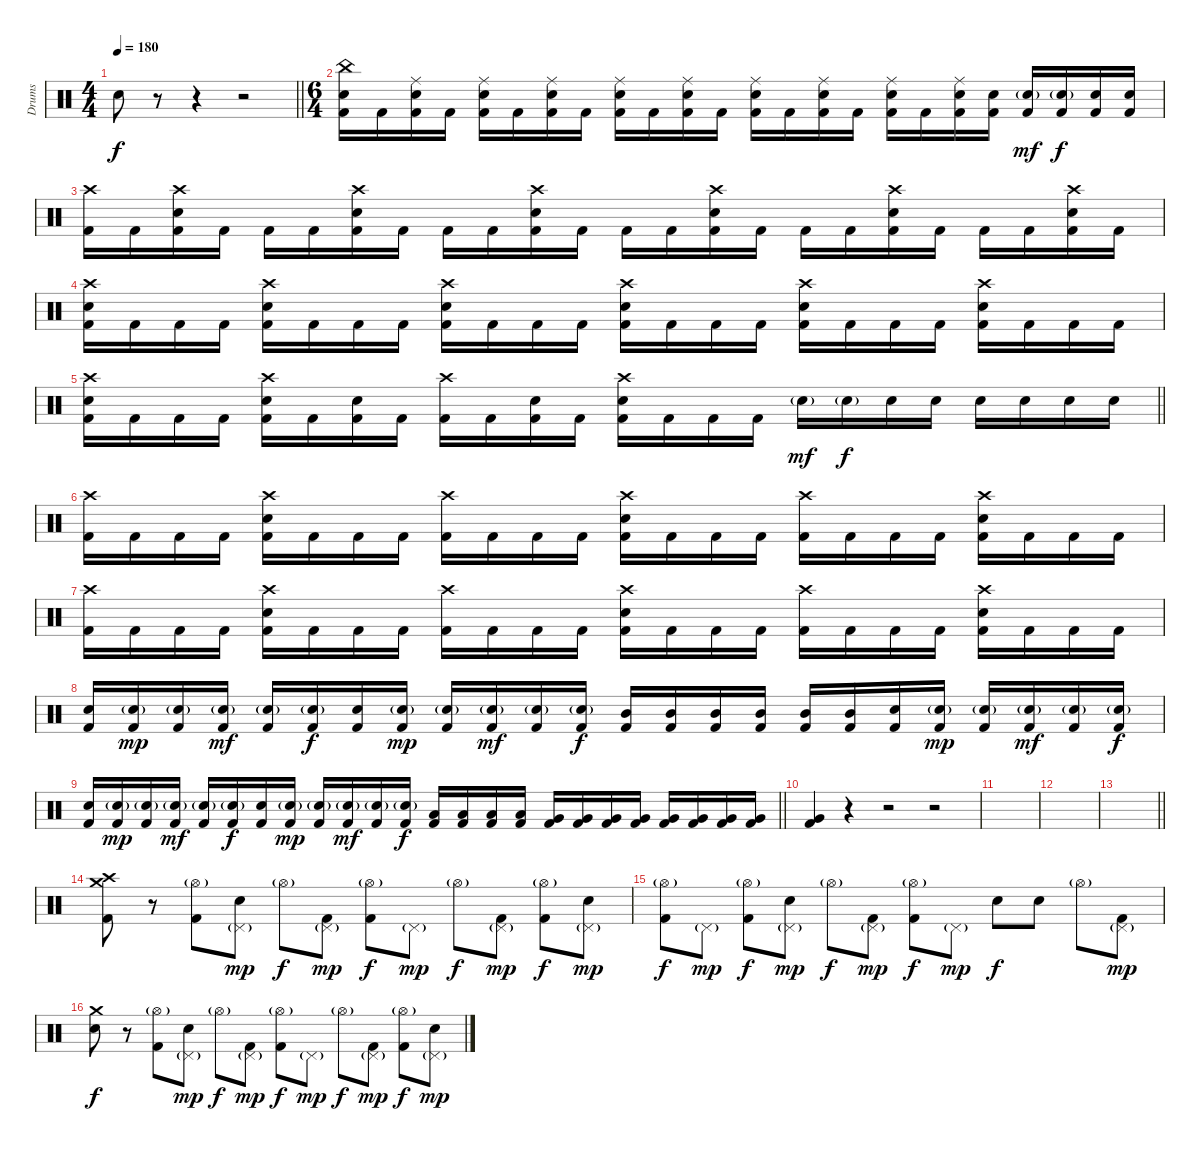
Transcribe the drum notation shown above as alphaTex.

\track ("Drums" "Drums") {instrument percussion}
\staff {score}
\articulation defaults
\ts (4 4)
\tempo 180
\clef neutral
\barLineRight lightlight
\ks c "Electric Snare (hit)".8{dy f}
r.8 r.4 r.2 |
\ts (6 4)
("China (hit)" "Electric Snare (hit)" "Kick (hit) 2").16 "Kick (hit) 2".16 ("Ride (middle)" "Electric Snare (hit)" "Kick (hit) 2").16 "Kick (hit) 2".16 ("Ride (middle)" "Electric Snare (hit)" "Kick (hit) 2").16 "Kick (hit) 2".16 ("Ride (middle)" "Electric Snare (hit)" "Kick (hit) 2").16 "Kick (hit) 2".16 ("Ride (middle)" "Electric Snare (hit)" "Kick (hit) 2").16 "Kick (hit) 2".16 ("Ride (middle)" "Electric Snare (hit)" "Kick (hit) 2").16 "Kick (hit) 2".16 ("Ride (middle)" "Electric Snare (hit)" "Kick (hit) 2").16 "Kick (hit) 2".16 ("Ride (middle)" "Electric Snare (hit)" "Kick (hit) 2").16 "Kick (hit) 2".16 ("Ride (middle)" "Electric Snare (hit)" "Kick (hit) 2").16 "Kick (hit) 2".16 ("Ride (middle)" "Electric Snare (hit)" "Kick (hit) 2").16 ("Electric Snare (hit)" "Kick (hit) 2").16 ("Electric Snare (hit)"{g} "Kick (hit) 2").16{dy mf} ("Electric Snare (hit)"{g} "Kick (hit) 2").16{dy f} ("Electric Snare (hit)" "Kick (hit) 2").16 ("Electric Snare (hit)" "Kick (hit) 2").16 |
("Crash high (hit)" "Kick (hit) 2").16 "Kick (hit) 2".16 ("Crash high (hit)" "Electric Snare (hit)" "Kick (hit) 2").16 "Kick (hit) 2".16 "Kick (hit) 2".16 "Kick (hit) 2".16 ("Crash high (hit)" "Electric Snare (hit)" "Kick (hit) 2").16 "Kick (hit) 2".16 "Kick (hit) 2".16 "Kick (hit) 2".16 ("Crash high (hit)" "Electric Snare (hit)" "Kick (hit) 2").16 "Kick (hit) 2".16 "Kick (hit) 2".16 "Kick (hit) 2".16 ("Crash high (hit)" "Electric Snare (hit)" "Kick (hit) 2").16 "Kick (hit) 2".16 "Kick (hit) 2".16 "Kick (hit) 2".16 ("Crash high (hit)" "Electric Snare (hit)" "Kick (hit) 2").16 "Kick (hit) 2".16 "Kick (hit) 2".16 "Kick (hit) 2".16 ("Crash high (hit)" "Electric Snare (hit)" "Kick (hit) 2").16 "Kick (hit) 2".16 |
("Crash high (hit)" "Electric Snare (hit)" "Kick (hit) 2").16 "Kick (hit) 2".16 "Kick (hit) 2".16 "Kick (hit) 2".16 ("Crash high (hit)" "Electric Snare (hit)" "Kick (hit) 2").16 "Kick (hit) 2".16 "Kick (hit) 2".16 "Kick (hit) 2".16 ("Crash high (hit)" "Electric Snare (hit)" "Kick (hit) 2").16 "Kick (hit) 2".16 "Kick (hit) 2".16 "Kick (hit) 2".16 ("Crash high (hit)" "Electric Snare (hit)" "Kick (hit) 2").16 "Kick (hit) 2".16 "Kick (hit) 2".16 "Kick (hit) 2".16 ("Crash high (hit)" "Electric Snare (hit)" "Kick (hit) 2").16 "Kick (hit) 2".16 "Kick (hit) 2".16 "Kick (hit) 2".16 ("Crash high (hit)" "Electric Snare (hit)" "Kick (hit) 2").16 "Kick (hit) 2".16 "Kick (hit) 2".16 "Kick (hit) 2".16 |
\barLineRight lightlight
("Crash high (hit)" "Electric Snare (hit)" "Kick (hit) 2").16 "Kick (hit) 2".16 "Kick (hit) 2".16 "Kick (hit) 2".16 ("Crash high (hit)" "Electric Snare (hit)" "Kick (hit) 2").16 "Kick (hit) 2".16 ("Electric Snare (hit)" "Kick (hit) 2").16 "Kick (hit) 2".16 ("Crash high (hit)" "Kick (hit) 2").16 "Kick (hit) 2".16 ("Electric Snare (hit)" "Kick (hit) 2").16 "Kick (hit) 2".16 ("Crash high (hit)" "Electric Snare (hit)" "Kick (hit) 2").16 "Kick (hit) 2".16 "Kick (hit) 2".16 "Kick (hit) 2".16 "Electric Snare (hit)"{g}.16{dy mf} "Electric Snare (hit)"{g}.16{dy f} "Electric Snare (hit)".16 "Electric Snare (hit)".16 "Electric Snare (hit)".16 "Electric Snare (hit)".16 "Electric Snare (hit)".16 "Electric Snare (hit)".16 |
("Crash high (hit)" "Kick (hit) 2").16 "Kick (hit) 2".16 "Kick (hit) 2".16 "Kick (hit) 2".16 ("Crash high (hit)" "Electric Snare (hit)" "Kick (hit) 2").16 "Kick (hit) 2".16 "Kick (hit) 2".16 "Kick (hit) 2".16 ("Crash high (hit)" "Kick (hit) 2").16 "Kick (hit) 2".16 "Kick (hit) 2".16 "Kick (hit) 2".16 ("Crash high (hit)" "Electric Snare (hit)" "Kick (hit) 2").16 "Kick (hit) 2".16 "Kick (hit) 2".16 "Kick (hit) 2".16 ("Crash high (hit)" "Kick (hit) 2").16 "Kick (hit) 2".16 "Kick (hit) 2".16 "Kick (hit) 2".16 ("Crash high (hit)" "Electric Snare (hit)" "Kick (hit) 2").16 "Kick (hit) 2".16 "Kick (hit) 2".16 "Kick (hit) 2".16 |
("Crash high (hit)" "Kick (hit) 2").16 "Kick (hit) 2".16 "Kick (hit) 2".16 "Kick (hit) 2".16 ("Crash high (hit)" "Electric Snare (hit)" "Kick (hit) 2").16 "Kick (hit) 2".16 "Kick (hit) 2".16 "Kick (hit) 2".16 ("Crash high (hit)" "Kick (hit) 2").16 "Kick (hit) 2".16 "Kick (hit) 2".16 "Kick (hit) 2".16 ("Crash high (hit)" "Electric Snare (hit)" "Kick (hit) 2").16 "Kick (hit) 2".16 "Kick (hit) 2".16 "Kick (hit) 2".16 ("Crash high (hit)" "Kick (hit) 2").16 "Kick (hit) 2".16 "Kick (hit) 2".16 "Kick (hit) 2".16 ("Crash high (hit)" "Electric Snare (hit)" "Kick (hit) 2").16 "Kick (hit) 2".16 "Kick (hit) 2".16 "Kick (hit) 2".16 |
("Electric Snare (hit)" "Kick (hit) 2").16 ("Electric Snare (hit)"{g} "Kick (hit) 2").16{dy mp} ("Electric Snare (hit)"{g} "Kick (hit) 2").16 ("Electric Snare (hit)"{g} "Kick (hit) 2").16{dy mf} ("Electric Snare (hit)"{g} "Kick (hit) 2").16 ("Electric Snare (hit)"{g} "Kick (hit) 2").16{dy f} ("Electric Snare (hit)" "Kick (hit) 2").16 ("Electric Snare (hit)"{g} "Kick (hit) 2").16{dy mp} ("Electric Snare (hit)"{g} "Kick (hit) 2").16 ("Electric Snare (hit)"{g} "Kick (hit) 2").16{dy mf} ("Electric Snare (hit)"{g} "Kick (hit) 2").16 ("Electric Snare (hit)"{g} "Kick (hit) 2").16{dy f} ("Mid Tom (hit)" "Kick (hit) 2").16 ("Mid Tom (hit)" "Kick (hit) 2").16 ("Mid Tom (hit)" "Kick (hit) 2").16 ("Mid Tom (hit)" "Kick (hit) 2").16 ("Mid Tom (hit)" "Kick (hit) 2").16 ("Mid Tom (hit)" "Kick (hit) 2").16 ("Electric Snare (hit)" "Kick (hit) 2").16 ("Electric Snare (hit)"{g} "Kick (hit) 2").16{dy mp} ("Electric Snare (hit)"{g} "Kick (hit) 2").16 ("Electric Snare (hit)"{g} "Kick (hit) 2").16{dy mf} ("Electric Snare (hit)"{g} "Kick (hit) 2").16 ("Electric Snare (hit)"{g} "Kick (hit) 2").16{dy f} |
\barLineRight lightlight
("Electric Snare (hit)" "Kick (hit) 2").16 ("Electric Snare (hit)"{g} "Kick (hit) 2").16{dy mp} ("Electric Snare (hit)"{g} "Kick (hit) 2").16 ("Electric Snare (hit)"{g} "Kick (hit) 2").16{dy mf} ("Electric Snare (hit)"{g} "Kick (hit) 2").16 ("Electric Snare (hit)"{g} "Kick (hit) 2").16{dy f} ("Electric Snare (hit)" "Kick (hit) 2").16 ("Electric Snare (hit)"{g} "Kick (hit) 2").16{dy mp} ("Electric Snare (hit)"{g} "Kick (hit) 2").16 ("Electric Snare (hit)"{g} "Kick (hit) 2").16{dy mf} ("Electric Snare (hit)"{g} "Kick (hit) 2").16 ("Electric Snare (hit)"{g} "Kick (hit) 2").16{dy f} ("Low Tom (hit)" "Kick (hit) 2").16 ("Low Tom (hit)" "Kick (hit) 2").16 ("Low Tom (hit)" "Kick (hit) 2").16 ("Low Tom (hit)" "Kick (hit) 2").16 ("Very Low Tom (hit)" "Kick (hit) 2").16 ("Very Low Tom (hit)" "Kick (hit) 2").16 ("Very Low Tom (hit)" "Kick (hit) 2").16 ("Very Low Tom (hit)" "Kick (hit) 2").16 ("Very Low Tom (hit)" "Kick (hit) 2").16 ("Very Low Tom (hit)" "Kick (hit) 2").16 ("Very Low Tom (hit)" "Kick (hit) 2").16 ("Very Low Tom (hit)" "Kick (hit) 2").16 |
("Very Low Tom (hit)" "Kick (hit) 2").4 r.4 r.2 r.2 |
|
|
\barLineRight lightlight
|
("Crash high (hit)" "Crash medium (hit)" "Kick (hit) 2").8 r.8 ("Hi-Hat (open)"{g} "Kick (hit) 2").8 ("Pedal Hi-Hat (hit)"{g} "Electric Snare (hit)").8{dy mp} "Hi-Hat (open)"{g}.8{dy f} ("Pedal Hi-Hat (hit)"{g} "Kick (hit) 2").8{dy mp} ("Hi-Hat (open)"{g} "Kick (hit) 2").8{dy f} "Pedal Hi-Hat (hit)"{g}.8{dy mp} "Hi-Hat (open)"{g}.8{dy f} ("Pedal Hi-Hat (hit)"{g} "Kick (hit) 2").8{dy mp} ("Hi-Hat (open)"{g} "Kick (hit) 2").8{dy f} ("Pedal Hi-Hat (hit)"{g} "Electric Snare (hit)").8{dy mp} |
("Hi-Hat (open)"{g} "Kick (hit) 2").8{dy f} "Pedal Hi-Hat (hit)"{g}.8{dy mp} ("Hi-Hat (open)"{g} "Kick (hit) 2").8{dy f} ("Pedal Hi-Hat (hit)"{g} "Electric Snare (hit)").8{dy mp} "Hi-Hat (open)"{g}.8{dy f} ("Pedal Hi-Hat (hit)"{g} "Kick (hit) 2").8{dy mp} ("Hi-Hat (open)"{g} "Kick (hit) 2").8{dy f} "Pedal Hi-Hat (hit)"{g}.8{dy mp} "Electric Snare (hit)".8{dy f} "Electric Snare (hit)".8 "Hi-Hat (open)"{g}.8 ("Pedal Hi-Hat (hit)"{g} "Kick (hit) 2").8{dy mp} |
("Crash medium (hit)" "Electric Snare (hit)").8{dy f} r.8 ("Hi-Hat (open)"{g} "Kick (hit) 2").8 ("Pedal Hi-Hat (hit)"{g} "Electric Snare (hit)").8{dy mp} "Hi-Hat (open)"{g}.8{dy f} ("Pedal Hi-Hat (hit)"{g} "Kick (hit) 2").8{dy mp} ("Hi-Hat (open)"{g} "Kick (hit) 2").8{dy f} "Pedal Hi-Hat (hit)"{g}.8{dy mp} "Hi-Hat (open)"{g}.8{dy f} ("Pedal Hi-Hat (hit)"{g} "Kick (hit) 2").8{dy mp} ("Hi-Hat (open)"{g} "Kick (hit) 2").8{dy f} ("Pedal Hi-Hat (hit)"{g} "Electric Snare (hit)").8{dy mp}
